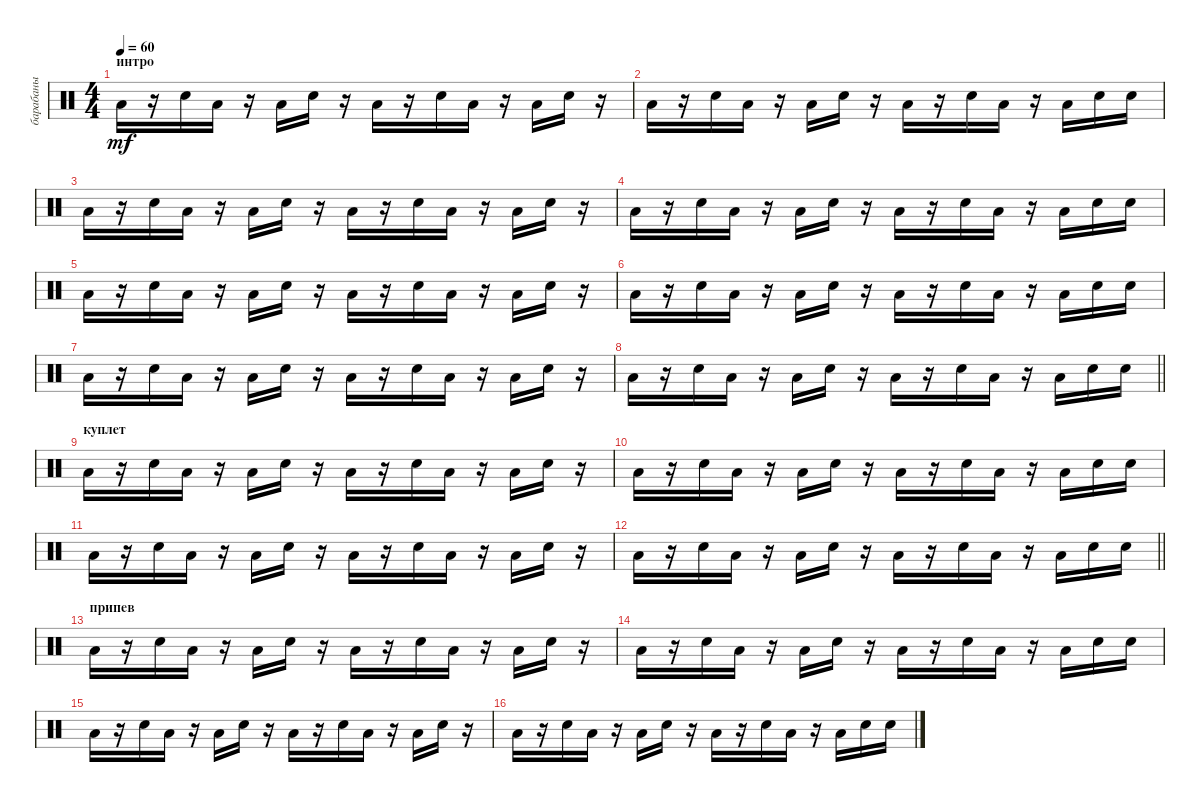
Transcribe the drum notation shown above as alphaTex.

\track ("барабаны" "барабаны") {instrument percussion}
\staff {score}
\articulation defaults
\ts (4 4)
\section ("" "интро")
\tempo 60
\clef neutral
\ks c "Low Floor Tom (hit)".16{dy mf}
r.16 "Snare (hit) 2".16 "Low Floor Tom (hit)".16 r.16 "Low Floor Tom (hit)".16 "Snare (hit) 2".16 r.16 "Low Floor Tom (hit)".16 r.16 "Snare (hit) 2".16 "Low Floor Tom (hit)".16 r.16 "Low Floor Tom (hit)".16 "Snare (hit) 2".16 r.16 |
"Low Floor Tom (hit)".16 r.16 "Snare (hit) 2".16 "Low Floor Tom (hit)".16 r.16 "Low Floor Tom (hit)".16 "Snare (hit) 2".16 r.16 "Low Floor Tom (hit)".16 r.16 "Snare (hit) 2".16 "Low Floor Tom (hit)".16 r.16 "Low Floor Tom (hit)".16 "Snare (hit) 2".16 "Snare (hit) 2".16 |
"Low Floor Tom (hit)".16 r.16 "Snare (hit) 2".16 "Low Floor Tom (hit)".16 r.16 "Low Floor Tom (hit)".16 "Snare (hit) 2".16 r.16 "Low Floor Tom (hit)".16 r.16 "Snare (hit) 2".16 "Low Floor Tom (hit)".16 r.16 "Low Floor Tom (hit)".16 "Snare (hit) 2".16 r.16 |
"Low Floor Tom (hit)".16 r.16 "Snare (hit) 2".16 "Low Floor Tom (hit)".16 r.16 "Low Floor Tom (hit)".16 "Snare (hit) 2".16 r.16 "Low Floor Tom (hit)".16 r.16 "Snare (hit) 2".16 "Low Floor Tom (hit)".16 r.16 "Low Floor Tom (hit)".16 "Snare (hit) 2".16 "Snare (hit) 2".16 |
"Low Floor Tom (hit)".16 r.16 "Snare (hit) 2".16 "Low Floor Tom (hit)".16 r.16 "Low Floor Tom (hit)".16 "Snare (hit) 2".16 r.16 "Low Floor Tom (hit)".16 r.16 "Snare (hit) 2".16 "Low Floor Tom (hit)".16 r.16 "Low Floor Tom (hit)".16 "Snare (hit) 2".16 r.16 |
"Low Floor Tom (hit)".16 r.16 "Snare (hit) 2".16 "Low Floor Tom (hit)".16 r.16 "Low Floor Tom (hit)".16 "Snare (hit) 2".16 r.16 "Low Floor Tom (hit)".16 r.16 "Snare (hit) 2".16 "Low Floor Tom (hit)".16 r.16 "Low Floor Tom (hit)".16 "Snare (hit) 2".16 "Snare (hit) 2".16 |
"Low Floor Tom (hit)".16 r.16 "Snare (hit) 2".16 "Low Floor Tom (hit)".16 r.16 "Low Floor Tom (hit)".16 "Snare (hit) 2".16 r.16 "Low Floor Tom (hit)".16 r.16 "Snare (hit) 2".16 "Low Floor Tom (hit)".16 r.16 "Low Floor Tom (hit)".16 "Snare (hit) 2".16 r.16 |
\barLineRight lightlight "Low Floor Tom (hit)".16
r.16 "Snare (hit) 2".16 "Low Floor Tom (hit)".16 r.16 "Low Floor Tom (hit)".16 "Snare (hit) 2".16 r.16 "Low Floor Tom (hit)".16 r.16 "Snare (hit) 2".16 "Low Floor Tom (hit)".16 r.16 "Low Floor Tom (hit)".16 "Snare (hit) 2".16 "Snare (hit) 2".16 |
\section ("" "куплет")
"Low Floor Tom (hit)".16 r.16 "Snare (hit) 2".16 "Low Floor Tom (hit)".16 r.16 "Low Floor Tom (hit)".16 "Snare (hit) 2".16 r.16 "Low Floor Tom (hit)".16 r.16 "Snare (hit) 2".16 "Low Floor Tom (hit)".16 r.16 "Low Floor Tom (hit)".16 "Snare (hit) 2".16 r.16 |
"Low Floor Tom (hit)".16 r.16 "Snare (hit) 2".16 "Low Floor Tom (hit)".16 r.16 "Low Floor Tom (hit)".16 "Snare (hit) 2".16 r.16 "Low Floor Tom (hit)".16 r.16 "Snare (hit) 2".16 "Low Floor Tom (hit)".16 r.16 "Low Floor Tom (hit)".16 "Snare (hit) 2".16 "Snare (hit) 2".16 |
"Low Floor Tom (hit)".16 r.16 "Snare (hit) 2".16 "Low Floor Tom (hit)".16 r.16 "Low Floor Tom (hit)".16 "Snare (hit) 2".16 r.16 "Low Floor Tom (hit)".16 r.16 "Snare (hit) 2".16 "Low Floor Tom (hit)".16 r.16 "Low Floor Tom (hit)".16 "Snare (hit) 2".16 r.16 |
\barLineRight lightlight "Low Floor Tom (hit)".16
r.16 "Snare (hit) 2".16 "Low Floor Tom (hit)".16 r.16 "Low Floor Tom (hit)".16 "Snare (hit) 2".16 r.16 "Low Floor Tom (hit)".16 r.16 "Snare (hit) 2".16 "Low Floor Tom (hit)".16 r.16 "Low Floor Tom (hit)".16 "Snare (hit) 2".16 "Snare (hit) 2".16 |
\section ("" "припев")
"Low Floor Tom (hit)".16 r.16 "Snare (hit) 2".16 "Low Floor Tom (hit)".16 r.16 "Low Floor Tom (hit)".16 "Snare (hit) 2".16 r.16 "Low Floor Tom (hit)".16 r.16 "Snare (hit) 2".16 "Low Floor Tom (hit)".16 r.16 "Low Floor Tom (hit)".16 "Snare (hit) 2".16 r.16 |
"Low Floor Tom (hit)".16 r.16 "Snare (hit) 2".16 "Low Floor Tom (hit)".16 r.16 "Low Floor Tom (hit)".16 "Snare (hit) 2".16 r.16 "Low Floor Tom (hit)".16 r.16 "Snare (hit) 2".16 "Low Floor Tom (hit)".16 r.16 "Low Floor Tom (hit)".16 "Snare (hit) 2".16 "Snare (hit) 2".16 |
"Low Floor Tom (hit)".16 r.16 "Snare (hit) 2".16 "Low Floor Tom (hit)".16 r.16 "Low Floor Tom (hit)".16 "Snare (hit) 2".16 r.16 "Low Floor Tom (hit)".16 r.16 "Snare (hit) 2".16 "Low Floor Tom (hit)".16 r.16 "Low Floor Tom (hit)".16 "Snare (hit) 2".16 r.16 |
"Low Floor Tom (hit)".16 r.16 "Snare (hit) 2".16 "Low Floor Tom (hit)".16 r.16 "Low Floor Tom (hit)".16 "Snare (hit) 2".16 r.16 "Low Floor Tom (hit)".16 r.16 "Snare (hit) 2".16 "Low Floor Tom (hit)".16 r.16 "Low Floor Tom (hit)".16 "Snare (hit) 2".16 "Snare (hit) 2".16
